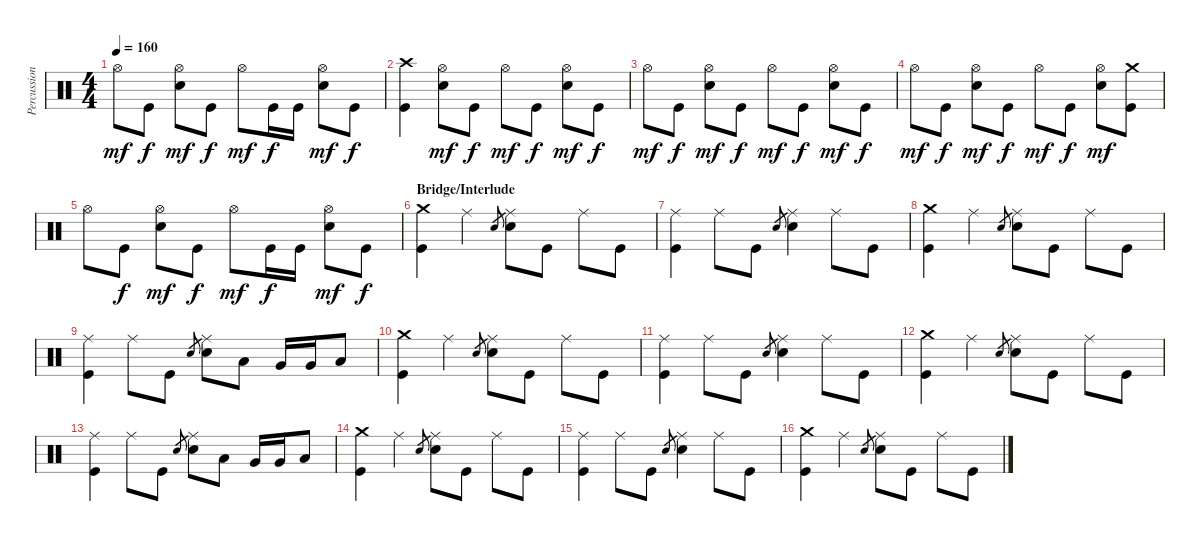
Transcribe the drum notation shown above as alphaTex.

\track ("Percussion" "Percussion") {instrument percussion}
\staff {score}
\articulation defaults
\ts (4 4)
\tempo 160
\clef neutral
\ks c "Hi-Hat (open)".8{dy mf} "Kick (hit)".8{dy f}
("Electric Snare (hit)" "Hi-Hat (open)").8{dy mf} "Kick (hit)".8{dy f} "Hi-Hat (open)".8{dy mf} "Kick (hit)".16{dy f} "Kick (hit)".16 ("Electric Snare (hit)" "Hi-Hat (open)").8{dy mf} "Kick (hit)".8{dy f} |
("Kick (hit)" "Crash high (hit)").4 ("Electric Snare (hit)" "Hi-Hat (open)").8{dy mf} "Kick (hit)".8{dy f} "Hi-Hat (open)".8{dy mf} "Kick (hit)".8{dy f} ("Electric Snare (hit)" "Hi-Hat (open)").8{dy mf} "Kick (hit)".8{dy f} |
"Hi-Hat (open)".8{dy mf} "Kick (hit)".8{dy f} ("Electric Snare (hit)" "Hi-Hat (open)").8{dy mf} "Kick (hit)".8{dy f} "Hi-Hat (open)".8{dy mf} "Kick (hit)".8{dy f} ("Electric Snare (hit)" "Hi-Hat (open)").8{dy mf} "Kick (hit)".8{dy f} |
"Hi-Hat (open)".8{dy mf} "Kick (hit)".8{dy f} ("Electric Snare (hit)" "Hi-Hat (open)").8{dy mf} "Kick (hit)".8{dy f} "Hi-Hat (open)".8{dy mf} "Kick (hit)".8{dy f} ("Electric Snare (hit)" "Hi-Hat (open)").8{dy mf} ("Kick (hit)" "Crash medium (hit)").8 |
"Hi-Hat (open)".8 "Kick (hit)".8{dy f} ("Electric Snare (hit)" "Hi-Hat (open)").8{dy mf} "Kick (hit)".8{dy f} "Hi-Hat (open)".8{dy mf} "Kick (hit)".16{dy f} "Kick (hit)".16 ("Electric Snare (hit)" "Hi-Hat (open)").8{dy mf} "Kick (hit)".8{dy f} |
\section ("" "Bridge/Interlude")
("Crash medium (hit)" "Kick (hit)").4 "Ride (middle)".4 "Electric Snare (hit)".8{gr} ("Ride (middle)" "Electric Snare (hit)").8 "Kick (hit)".8 "Ride (middle)".8 "Kick (hit)".8 |
("Ride (middle)" "Kick (hit)").4 "Ride (middle)".8 "Kick (hit)".8 "Electric Snare (hit)".8{gr} ("Ride (middle)" "Electric Snare (hit)").4 "Ride (middle)".8 "Kick (hit)".8 |
("Crash medium (hit)" "Kick (hit)").4 "Ride (middle)".4 "Electric Snare (hit)".8{gr} ("Ride (middle)" "Electric Snare (hit)").8 "Kick (hit)".8 "Ride (middle)".8 "Kick (hit)".8 |
("Ride (middle)" "Kick (hit)").4 "Ride (middle)".8 "Kick (hit)".8 "Electric Snare (hit)".8{gr} ("Ride (middle)" "Electric Snare (hit)").8 "Low Tom (hit)".8 "Very Low Tom (hit)".16 "Very Low Tom (hit)".16 "Low Floor Tom (hit)".8 |
("Crash medium (hit)" "Kick (hit)").4 "Ride (middle)".4 "Electric Snare (hit)".8{gr} ("Ride (middle)" "Electric Snare (hit)").8 "Kick (hit)".8 "Ride (middle)".8 "Kick (hit)".8 |
("Ride (middle)" "Kick (hit)").4 "Ride (middle)".8 "Kick (hit)".8 "Electric Snare (hit)".8{gr} ("Ride (middle)" "Electric Snare (hit)").4 "Ride (middle)".8 "Kick (hit)".8 |
("Crash medium (hit)" "Kick (hit)").4 "Ride (middle)".4 "Electric Snare (hit)".8{gr} ("Ride (middle)" "Electric Snare (hit)").8 "Kick (hit)".8 "Ride (middle)".8 "Kick (hit)".8 |
("Ride (middle)" "Kick (hit)").4 "Ride (middle)".8 "Kick (hit)".8 "Electric Snare (hit)".8{gr} ("Ride (middle)" "Electric Snare (hit)").8 "Low Tom (hit)".8 "Very Low Tom (hit)".16 "Very Low Tom (hit)".16 "Low Floor Tom (hit)".8 |
("Crash medium (hit)" "Kick (hit)").4 "Ride (middle)".4 "Electric Snare (hit)".8{gr} ("Ride (middle)" "Electric Snare (hit)").8 "Kick (hit)".8 "Ride (middle)".8 "Kick (hit)".8 |
("Ride (middle)" "Kick (hit)").4 "Ride (middle)".8 "Kick (hit)".8 "Electric Snare (hit)".8{gr} ("Ride (middle)" "Electric Snare (hit)").4 "Ride (middle)".8 "Kick (hit)".8 |
("Crash medium (hit)" "Kick (hit)").4 "Ride (middle)".4 "Electric Snare (hit)".8{gr} ("Ride (middle)" "Electric Snare (hit)").8 "Kick (hit)".8 "Ride (middle)".8 "Kick (hit)".8
